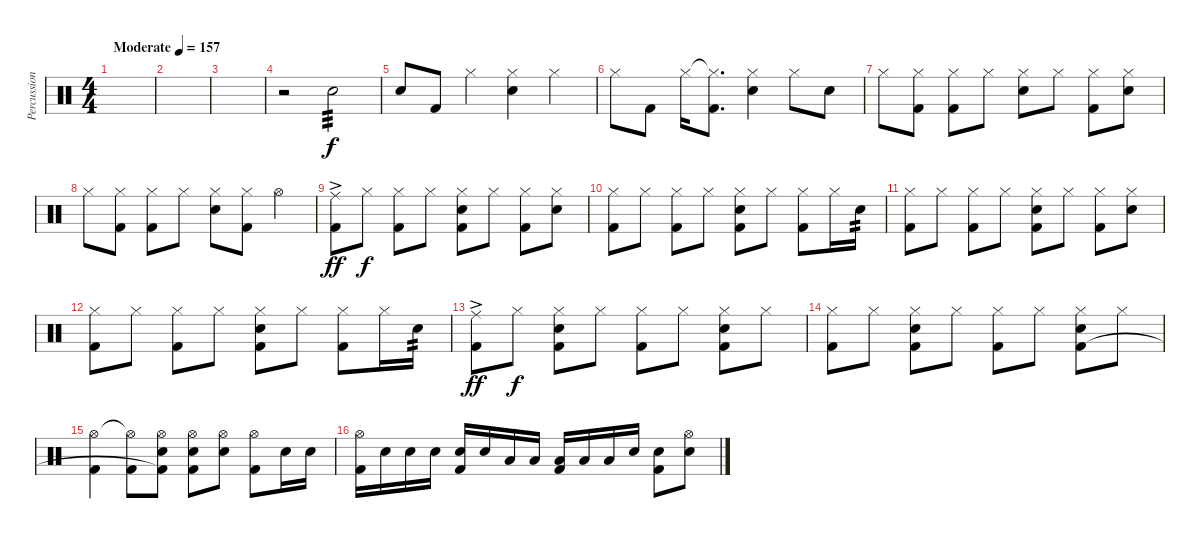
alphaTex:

\track ("Percussion" "Percussion") {instrument percussion}
\staff {score}
\articulation defaults
\ts (4 4)
\tempo (157 "Moderate")
\clef neutral
\ks c
|
|
|
r.2{volume 0} "Snare (hit) 2".2{tp 3 volume 16} |
"Snare (hit) 2".8 "Kick (hit) 2".8 "Hi-Hat (closed)".4 ("Hi-Hat (closed)" "Snare (hit) 2").4 "Hi-Hat (closed)".4 |
"Hi-Hat (closed)".8 "Kick (hit) 2".8 "Hi-Hat (closed)".16 ("Hi-Hat (closed)"{t} "Kick (hit) 2").8{d} ("Hi-Hat (closed)" "Snare (hit) 2").4 "Hi-Hat (closed)".8 "Snare (hit) 2".8 |
"Hi-Hat (closed)".8 ("Hi-Hat (closed)" "Kick (hit) 2").8 ("Hi-Hat (closed)" "Kick (hit) 2").8 "Hi-Hat (closed)".8 ("Hi-Hat (closed)" "Snare (hit) 2").8 "Hi-Hat (closed)".8 ("Hi-Hat (closed)" "Kick (hit) 2").8 ("Hi-Hat (closed)" "Snare (hit) 2").8 |
"Hi-Hat (closed)".8 ("Hi-Hat (closed)" "Kick (hit) 2").8 ("Hi-Hat (closed)" "Kick (hit) 2").8 "Hi-Hat (closed)".8 ("Hi-Hat (closed)" "Snare (hit) 2").8 ("Hi-Hat (closed)" "Kick (hit) 2").8 "Hi-Hat (open)".4 |
("Ride (middle)"{ac} "Kick (hit) 2").8{dy ff} "Hi-Hat (closed)".8{dy f} ("Hi-Hat (closed)" "Kick (hit) 2").8 "Hi-Hat (closed)".8 ("Hi-Hat (closed)" "Snare (hit) 2" "Kick (hit) 2").8 "Hi-Hat (closed)".8 ("Hi-Hat (closed)" "Kick (hit) 2").8 ("Hi-Hat (closed)" "Snare (hit) 2").8 |
("Hi-Hat (closed)" "Kick (hit) 2").8 "Hi-Hat (closed)".8 ("Hi-Hat (closed)" "Kick (hit) 2").8 "Hi-Hat (closed)".8 ("Hi-Hat (closed)" "Snare (hit) 2" "Kick (hit) 2").8 "Hi-Hat (closed)".8 ("Hi-Hat (closed)" "Kick (hit) 2").8 "Hi-Hat (closed)".16 "Snare (hit) 2".16{tp 2} |
("Hi-Hat (closed)" "Kick (hit) 2").8 "Hi-Hat (closed)".8 ("Hi-Hat (closed)" "Kick (hit) 2").8 "Hi-Hat (closed)".8 ("Hi-Hat (closed)" "Snare (hit) 2" "Kick (hit) 2").8 "Hi-Hat (closed)".8 ("Hi-Hat (closed)" "Kick (hit) 2").8 ("Hi-Hat (closed)" "Snare (hit) 2").8 |
("Hi-Hat (closed)" "Kick (hit) 2").8 "Hi-Hat (closed)".8 ("Hi-Hat (closed)" "Kick (hit) 2").8 "Hi-Hat (closed)".8 ("Hi-Hat (closed)" "Snare (hit) 2" "Kick (hit) 2").8 "Hi-Hat (closed)".8 ("Hi-Hat (closed)" "Kick (hit) 2").8 "Hi-Hat (closed)".16 "Snare (hit) 2".16{tp 2} |
("Ride (middle)"{ac} "Kick (hit) 2").8{dy ff} "Hi-Hat (closed)".8{dy f} ("Hi-Hat (closed)" "Snare (hit) 2" "Kick (hit) 2").8 "Hi-Hat (closed)".8 ("Hi-Hat (closed)" "Kick (hit) 2").8 "Hi-Hat (closed)".8 ("Hi-Hat (closed)" "Snare (hit) 2" "Kick (hit) 2").8 "Hi-Hat (closed)".8 |
("Hi-Hat (closed)" "Kick (hit) 2").8 "Hi-Hat (closed)".8 ("Hi-Hat (closed)" "Snare (hit) 2" "Kick (hit) 2").8 "Hi-Hat (closed)".8 ("Hi-Hat (closed)" "Kick (hit) 2").8 "Hi-Hat (closed)".8 ("Hi-Hat (closed)" "Snare (hit) 2" "Kick (hit) 2").8 "Hi-Hat (closed)".8 |
("Hi-Hat (open)" "Kick (hit) 2").4 ("Hi-Hat (open)"{t} "Kick (hit) 2").8 ("Hi-Hat (open)" "Snare (hit) 2" "Kick (hit) 2"{t}).8 ("Hi-Hat (open)" "Snare (hit) 2" "Kick (hit) 2").8 ("Hi-Hat (open)" "Snare (hit) 2").8 ("Hi-Hat (open)" "Kick (hit) 2").8 "Snare (hit) 2".16 "Snare (hit) 2".16 |
("Hi-Hat (open)" "Kick (hit) 2").16 "Snare (hit) 2".16 "Snare (hit) 2".16 "Snare (hit) 2".16 ("Snare (hit) 2" "Kick (hit) 2").16 "Snare (hit) 2".16 "Low Tom (hit)".16 "Low Tom (hit)".16 ("Low Tom (hit)" "Kick (hit) 2").16 "Low Tom (hit)".16 "Low Tom (hit)".16 "Snare (hit) 2".16 ("Snare (hit) 2" "Kick (hit) 2").8 ("Hi-Hat (open)" "Snare (hit) 2").8
